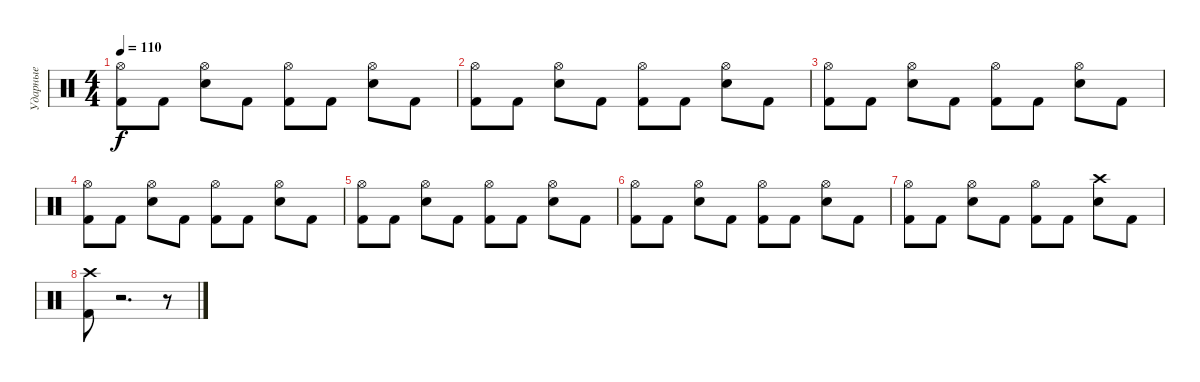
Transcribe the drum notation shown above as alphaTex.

\track ("Ударные" "Ударные") {instrument percussion}
\staff {score}
\articulation defaults
\ts (4 4)
\tempo 110
\clef neutral
\ks c
("Kick (hit) 2" "Hi-Hat (open)").8{dy f} "Kick (hit) 2".8 ("Electric Snare (hit)" "Hi-Hat (open)").8 "Kick (hit) 2".8 ("Kick (hit) 2" "Hi-Hat (open)").8 "Kick (hit) 2".8 ("Electric Snare (hit)" "Hi-Hat (open)").8 "Kick (hit) 2".8 |
("Kick (hit) 2" "Hi-Hat (open)").8 "Kick (hit) 2".8 ("Electric Snare (hit)" "Hi-Hat (open)").8 "Kick (hit) 2".8 ("Kick (hit) 2" "Hi-Hat (open)").8 "Kick (hit) 2".8 ("Electric Snare (hit)" "Hi-Hat (open)").8 "Kick (hit) 2".8 |
("Kick (hit) 2" "Hi-Hat (open)").8 "Kick (hit) 2".8 ("Electric Snare (hit)" "Hi-Hat (open)").8 "Kick (hit) 2".8 ("Kick (hit) 2" "Hi-Hat (open)").8 "Kick (hit) 2".8 ("Electric Snare (hit)" "Hi-Hat (open)").8 "Kick (hit) 2".8 |
("Kick (hit) 2" "Hi-Hat (open)").8 "Kick (hit) 2".8 ("Electric Snare (hit)" "Hi-Hat (open)").8 "Kick (hit) 2".8 ("Kick (hit) 2" "Hi-Hat (open)").8 "Kick (hit) 2".8 ("Electric Snare (hit)" "Hi-Hat (open)").8 "Kick (hit) 2".8 |
("Kick (hit) 2" "Hi-Hat (open)").8 "Kick (hit) 2".8 ("Electric Snare (hit)" "Hi-Hat (open)").8 "Kick (hit) 2".8 ("Kick (hit) 2" "Hi-Hat (open)").8 "Kick (hit) 2".8 ("Electric Snare (hit)" "Hi-Hat (open)").8 "Kick (hit) 2".8 |
("Kick (hit) 2" "Hi-Hat (open)").8 "Kick (hit) 2".8 ("Electric Snare (hit)" "Hi-Hat (open)").8 "Kick (hit) 2".8 ("Kick (hit) 2" "Hi-Hat (open)").8 "Kick (hit) 2".8 ("Electric Snare (hit)" "Hi-Hat (open)").8 "Kick (hit) 2".8 |
("Kick (hit) 2" "Hi-Hat (open)").8 "Kick (hit) 2".8 ("Electric Snare (hit)" "Hi-Hat (open)").8 "Kick (hit) 2".8 ("Kick (hit) 2" "Hi-Hat (open)").8 "Kick (hit) 2".8 ("Electric Snare (hit)" "Crash high (hit)").8 "Kick (hit) 2".8 |
("Crash high (hit)" "Kick (hit) 2").8 r.2{d} r.8
